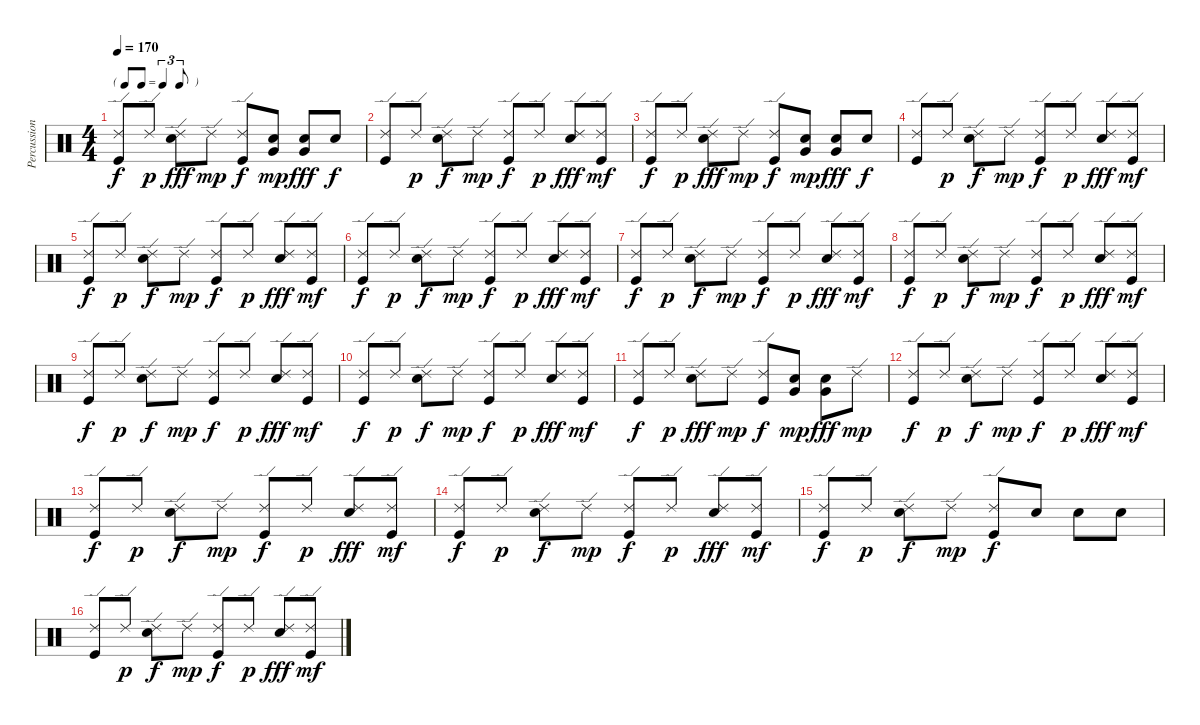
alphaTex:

\track ("Percussion" "Percussion") {instrument percussion}
\staff {score}
\articulation defaults
\ts (4 4)
\tf triplet8th
\tempo 170
\clef neutral
\ks c
("Ride (edge) 2" "Kick (hit)").8{dy f} "Ride (edge) 2".8{dy p} ("Ride (edge) 2" "Snare (hit) 2").8{dy fff} "Ride (edge) 2".8{dy mp} ("Ride (edge) 2" "Kick (hit)").8{dy f} ("Very Low Tom (hit)" "Snare (hit) 2").8{dy mp} ("Very Low Tom (hit)" "Snare (hit) 2").8{dy fff} "Snare (hit) 2".8{dy f} |
("Ride (edge) 2" "Kick (hit)").8 "Ride (edge) 2".8{dy p} ("Ride (edge) 2" "Snare (hit) 2").8{dy f} "Ride (edge) 2".8{dy mp} ("Ride (edge) 2" "Kick (hit)").8{dy f} "Ride (edge) 2".8{dy p} ("Ride (edge) 2" "Snare (hit) 2").8{dy fff} ("Ride (edge) 2" "Kick (hit)").8{dy mf} |
("Ride (edge) 2" "Kick (hit)").8{dy f} "Ride (edge) 2".8{dy p} ("Ride (edge) 2" "Snare (hit) 2").8{dy fff} "Ride (edge) 2".8{dy mp} ("Ride (edge) 2" "Kick (hit)").8{dy f} ("Very Low Tom (hit)" "Snare (hit) 2").8{dy mp} ("Very Low Tom (hit)" "Snare (hit) 2").8{dy fff} "Snare (hit) 2".8{dy f} |
("Ride (edge) 2" "Kick (hit)").8 "Ride (edge) 2".8{dy p} ("Ride (edge) 2" "Snare (hit) 2").8{dy f} "Ride (edge) 2".8{dy mp} ("Ride (edge) 2" "Kick (hit)").8{dy f} "Ride (edge) 2".8{dy p} ("Ride (edge) 2" "Snare (hit) 2").8{dy fff} ("Ride (edge) 2" "Kick (hit)").8{dy mf} |
("Ride (edge) 2" "Kick (hit)").8{dy f} "Ride (edge) 2".8{dy p} ("Ride (edge) 2" "Snare (hit) 2").8{dy f} "Ride (edge) 2".8{dy mp} ("Ride (edge) 2" "Kick (hit)").8{dy f} "Ride (edge) 2".8{dy p} ("Ride (edge) 2" "Snare (hit) 2").8{dy fff} ("Ride (edge) 2" "Kick (hit)").8{dy mf} |
("Ride (edge) 2" "Kick (hit)").8{dy f} "Ride (edge) 2".8{dy p} ("Ride (edge) 2" "Snare (hit) 2").8{dy f} "Ride (edge) 2".8{dy mp} ("Ride (edge) 2" "Kick (hit)").8{dy f} "Ride (edge) 2".8{dy p} ("Ride (edge) 2" "Snare (hit) 2").8{dy fff} ("Ride (edge) 2" "Kick (hit)").8{dy mf} |
("Ride (edge) 2" "Kick (hit)").8{dy f} "Ride (edge) 2".8{dy p} ("Ride (edge) 2" "Snare (hit) 2").8{dy f} "Ride (edge) 2".8{dy mp} ("Ride (edge) 2" "Kick (hit)").8{dy f} "Ride (edge) 2".8{dy p} ("Ride (edge) 2" "Snare (hit) 2").8{dy fff} ("Ride (edge) 2" "Kick (hit)").8{dy mf} |
("Ride (edge) 2" "Kick (hit)").8{dy f} "Ride (edge) 2".8{dy p} ("Ride (edge) 2" "Snare (hit) 2").8{dy f} "Ride (edge) 2".8{dy mp} ("Ride (edge) 2" "Kick (hit)").8{dy f} "Ride (edge) 2".8{dy p} ("Ride (edge) 2" "Snare (hit) 2").8{dy fff} ("Ride (edge) 2" "Kick (hit)").8{dy mf} |
("Ride (edge) 2" "Kick (hit)").8{dy f} "Ride (edge) 2".8{dy p} ("Ride (edge) 2" "Snare (hit) 2").8{dy f} "Ride (edge) 2".8{dy mp} ("Ride (edge) 2" "Kick (hit)").8{dy f} "Ride (edge) 2".8{dy p} ("Ride (edge) 2" "Snare (hit) 2").8{dy fff} ("Ride (edge) 2" "Kick (hit)").8{dy mf} |
("Ride (edge) 2" "Kick (hit)").8{dy f} "Ride (edge) 2".8{dy p} ("Ride (edge) 2" "Snare (hit) 2").8{dy f} "Ride (edge) 2".8{dy mp} ("Ride (edge) 2" "Kick (hit)").8{dy f} "Ride (edge) 2".8{dy p} ("Ride (edge) 2" "Snare (hit) 2").8{dy fff} ("Ride (edge) 2" "Kick (hit)").8{dy mf} |
("Ride (edge) 2" "Kick (hit)").8{dy f} "Ride (edge) 2".8{dy p} ("Ride (edge) 2" "Snare (hit) 2").8{dy fff} "Ride (edge) 2".8{dy mp} ("Ride (edge) 2" "Kick (hit)").8{dy f} ("Very Low Tom (hit)" "Snare (hit) 2").8{dy mp} ("Very Low Tom (hit)" "Snare (hit) 2").8{dy fff} "Ride (edge) 2".8{dy mp} |
("Ride (edge) 2" "Kick (hit)").8{dy f} "Ride (edge) 2".8{dy p} ("Ride (edge) 2" "Snare (hit) 2").8{dy f} "Ride (edge) 2".8{dy mp} ("Ride (edge) 2" "Kick (hit)").8{dy f} "Ride (edge) 2".8{dy p} ("Ride (edge) 2" "Snare (hit) 2").8{dy fff} ("Ride (edge) 2" "Kick (hit)").8{dy mf} |
("Ride (edge) 2" "Kick (hit)").8{dy f} "Ride (edge) 2".8{dy p} ("Ride (edge) 2" "Snare (hit) 2").8{dy f} "Ride (edge) 2".8{dy mp} ("Ride (edge) 2" "Kick (hit)").8{dy f} "Ride (edge) 2".8{dy p} ("Ride (edge) 2" "Snare (hit) 2").8{dy fff} ("Ride (edge) 2" "Kick (hit)").8{dy mf} |
("Ride (edge) 2" "Kick (hit)").8{dy f} "Ride (edge) 2".8{dy p} ("Ride (edge) 2" "Snare (hit) 2").8{dy f} "Ride (edge) 2".8{dy mp} ("Ride (edge) 2" "Kick (hit)").8{dy f} "Ride (edge) 2".8{dy p} ("Ride (edge) 2" "Snare (hit) 2").8{dy fff} ("Ride (edge) 2" "Kick (hit)").8{dy mf} |
("Ride (edge) 2" "Kick (hit)").8{dy f} "Ride (edge) 2".8{dy p} ("Ride (edge) 2" "Snare (hit) 2").8{dy f} "Ride (edge) 2".8{dy mp} ("Ride (edge) 2" "Kick (hit)").8{dy f} "Snare (hit) 2".8 "Snare (hit) 2".8 "Snare (hit) 2".8 |
("Ride (edge) 2" "Kick (hit)").8 "Ride (edge) 2".8{dy p} ("Ride (edge) 2" "Snare (hit) 2").8{dy f} "Ride (edge) 2".8{dy mp} ("Ride (edge) 2" "Kick (hit)").8{dy f} "Ride (edge) 2".8{dy p} ("Ride (edge) 2" "Snare (hit) 2").8{dy fff} ("Ride (edge) 2" "Kick (hit)").8{dy mf}
